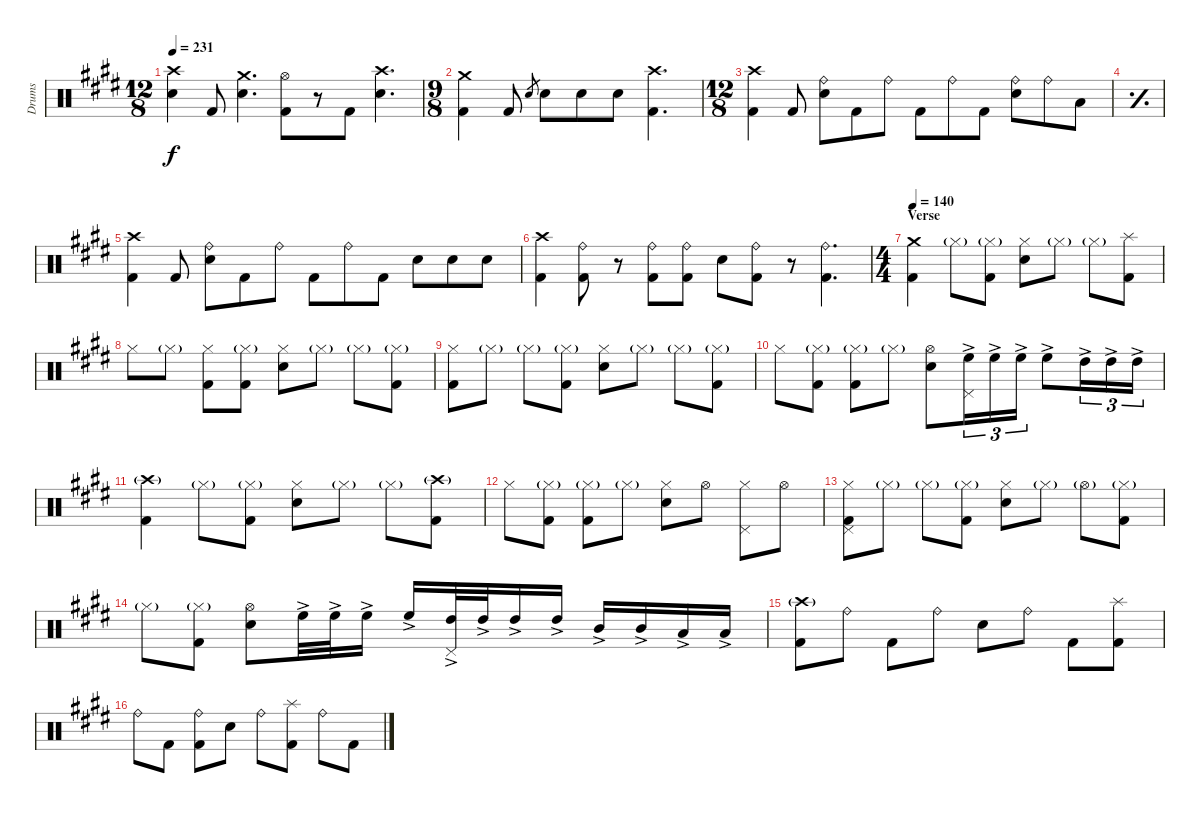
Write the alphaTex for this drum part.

\defaultSystemsLayout 4
\bracketExtendMode groupsimilarinstruments
\otherSystemsTrackNameOrientation horizontal
\track ("Drumkit" "Drums") {multiBarRest instrument percussion}
\staff {score}
\articulation defaults
\ts (12 8)
\tempo 231
\clef neutral
\ks e
("Snare (hit) 2"{acc forcenatural} "Crash high (hit)"{acc forcenatural}).4{dy f} "Kick (hit) 2"{acc forcenatural}.8 ("Snare (hit) 2"{acc forcenatural} "Crash medium (hit)"{acc forcenatural}).4{d} ("Kick (hit) 2"{acc forcenatural} "Hi-Hat (open)"{acc forcenatural}).8 r.8 "Kick (hit) 2"{acc forcenatural}.8 ("Snare (hit) 2"{acc forcenatural} "Crash high (hit)"{acc forcenatural}).4{d} |
\ts (9 8)
("Kick (hit) 2"{acc forcenatural} "Crash medium (hit)"{acc forcenatural}).4 "Kick (hit) 2"{acc forcenatural}.8 "Snare (hit) 2"{acc forcenatural}.8{gr} "Snare (hit) 2"{acc forcenatural}.8 "Snare (hit) 2"{acc forcenatural}.8 "Snare (hit) 2"{acc forcenatural}.8 ("Kick (hit) 2"{acc forcenatural} "Crash high (hit)"{acc forcenatural}).4{d} |
\ts (12 8)
("Crash high (hit)"{acc forcenatural} "Kick (hit) 2"{acc forcenatural}).4 "Kick (hit) 2"{acc forcenatural}.8 ("Ride (bell)"{acc forcenatural} "Snare (hit) 2"{acc forcenatural}).8 "Kick (hit) 2"{acc forcenatural}.8 "Ride (bell)"{acc forcenatural}.8 "Kick (hit) 2"{acc forcenatural}.8 "Ride (bell)"{acc forcenatural}.8 "Kick (hit) 2"{acc forcenatural}.8 ("Ride (bell)"{acc forcenatural} "Snare (hit) 2"{acc forcenatural}).8 "Ride (bell)"{acc forcenatural}.8 "Low Tom (hit)"{acc forcenatural}.8 |
\simile simple
|
\simile none
("Crash high (hit)"{acc forcenatural} "Kick (hit) 2"{acc forcenatural}).4 "Kick (hit) 2"{acc forcenatural}.8 ("Ride (bell)"{acc forcenatural} "Snare (hit) 2"{acc forcenatural}).8 "Kick (hit) 2"{acc forcenatural}.8 "Ride (bell)"{acc forcenatural}.8 "Kick (hit) 2"{acc forcenatural}.8 "Ride (bell)"{acc forcenatural}.8 "Kick (hit) 2"{acc forcenatural}.8 "Snare (hit) 2"{acc forcenatural}.8 "Snare (hit) 2"{acc forcenatural}.8 "Snare (hit) 2"{acc forcenatural}.8 |
("Kick (hit) 2"{acc forcenatural} "Crash high (hit)"{acc forcenatural}).4 ("Kick (hit) 2"{acc forcenatural} "Ride (bell)"{acc forcenatural}).8 r.8 ("Kick (hit) 2"{acc forcenatural} "Ride (bell)"{acc forcenatural}).8 ("Kick (hit) 2"{acc forcenatural} "Ride (bell)"{acc forcenatural}).8 "Snare (hit) 2"{acc forcenatural}.8 ("Kick (hit) 2"{acc forcenatural} "Ride (bell)"{acc forcenatural}).8 r.8 ("Kick (hit) 2"{acc forcenatural} "Ride (bell)"{acc forcenatural}).4{d} |
\ts (4 4)
\section ("" "Verse")
\tempo 140
("Kick (hit) 2"{acc forcenatural} "Crash medium (hit)"{acc forcenatural}).4 "Hi-Hat (closed)"{g acc forcenatural}.8 ("Kick (hit) 2"{acc forcenatural} "Hi-Hat (closed)"{g acc forcenatural}).8 ("Hi-Hat (closed)"{acc forcenatural} "Snare (hit) 2"{acc forcenatural}).8 "Hi-Hat (closed)"{g acc forcenatural}.8 "Hi-Hat (closed)"{g acc forcenatural}.8 ("Kick (hit) 2"{acc forcenatural} "Splash (hit)"{acc forcenatural}).8 |
"Hi-Hat (closed)"{acc forcenatural}.8 "Hi-Hat (closed)"{g acc forcenatural}.8 ("Hi-Hat (closed)"{acc forcenatural} "Kick (hit) 2"{acc forcenatural}).8 ("Hi-Hat (closed)"{g acc forcenatural} "Kick (hit) 2"{acc forcenatural}).8 ("Hi-Hat (closed)"{acc forcenatural} "Snare (hit) 2"{acc forcenatural}).8 "Hi-Hat (closed)"{g acc forcenatural}.8 "Hi-Hat (closed)"{g acc forcenatural}.8 ("Hi-Hat (closed)"{g acc forcenatural} "Kick (hit) 2"{acc forcenatural}).8 |
("Hi-Hat (closed)"{acc forcenatural} "Kick (hit) 2"{acc forcenatural}).8 "Hi-Hat (closed)"{g acc forcenatural}.8 "Hi-Hat (closed)"{g acc forcenatural}.8 ("Hi-Hat (closed)"{g acc forcenatural} "Kick (hit) 2"{acc forcenatural}).8 ("Hi-Hat (closed)"{acc forcenatural} "Snare (hit) 2"{acc forcenatural}).8 "Hi-Hat (closed)"{g acc forcenatural}.8 "Hi-Hat (closed)"{g acc forcenatural}.8 ("Hi-Hat (closed)"{g acc forcenatural} "Kick (hit) 2"{acc forcenatural}).8 |
"Hi-Hat (closed)"{acc forcenatural}.8 ("Hi-Hat (closed)"{g acc forcenatural} "Kick (hit) 2"{acc forcenatural}).8 ("Hi-Hat (closed)"{g acc forcenatural} "Kick (hit) 2"{acc forcenatural}).8 "Hi-Hat (closed)"{g acc forcenatural}.8 ("Hi-Hat (open)"{acc forcenatural} "Snare (hit) 2"{acc forcenatural}).8{beam merge} ("High Floor Tom (hit)"{ac acc forcenatural} "Pedal Hi-Hat (hit)"{acc forcenatural}).16{tu (3 2) beam merge} "High Floor Tom (hit)"{ac acc forcenatural}.16{tu (3 2) beam merge} "High Floor Tom (hit)"{ac acc forcenatural}.16{tu (3 2)} "High Floor Tom (hit)"{ac acc forcenatural}.8{beam merge} "High Tom (hit)"{ac acc forcenatural}.16{tu (3 2) beam merge} "High Tom (hit)"{ac acc forcenatural}.16{tu (3 2) beam merge} "High Tom (hit)"{ac acc forcenatural}.16{tu (3 2)} |
("Crash high (hit)"{g acc forcenatural} "Kick (hit) 2"{acc forcenatural}).4 "Hi-Hat (closed)"{g acc forcenatural}.8 ("Kick (hit) 2"{acc forcenatural} "Hi-Hat (closed)"{g acc forcenatural}).8 ("Hi-Hat (closed)"{acc forcenatural} "Snare (hit) 2"{acc forcenatural}).8 "Hi-Hat (closed)"{g acc forcenatural}.8 "Hi-Hat (closed)"{g acc forcenatural}.8 ("Crash high (hit)"{g acc forcenatural} "Kick (hit) 2"{acc forcenatural}).8 |
"Hi-Hat (closed)"{acc forcenatural}.8 ("Hi-Hat (closed)"{g acc forcenatural} "Kick (hit) 2"{acc forcenatural}).8 ("Hi-Hat (closed)"{g acc forcenatural} "Kick (hit) 2"{acc forcenatural}).8 "Hi-Hat (closed)"{g acc forcenatural}.8 ("Hi-Hat (closed)"{acc forcenatural} "Snare (hit) 2"{acc forcenatural}).8 "Hi-Hat (open)"{acc forcenatural}.8 ("Hi-Hat (closed)"{acc forcenatural} "Pedal Hi-Hat (hit)"{acc forcenatural}).8 "Hi-Hat (open)"{acc forcenatural}.8 |
("Hi-Hat (closed)"{acc forcenatural} "Kick (hit) 2"{acc forcenatural} "Pedal Hi-Hat (hit)"{acc forcenatural}).8 "Hi-Hat (closed)"{g acc forcenatural}.8 "Hi-Hat (closed)"{g acc forcenatural}.8 ("Hi-Hat (closed)"{g acc forcenatural} "Kick (hit) 2"{acc forcenatural}).8 ("Hi-Hat (closed)"{acc forcenatural} "Snare (hit) 2"{acc forcenatural}).8 "Hi-Hat (closed)"{g acc forcenatural}.8 "Hi-Hat (open)"{g acc forcenatural}.8 ("Hi-Hat (closed)"{g acc forcenatural} "Kick (hit) 2"{acc forcenatural}).8 |
"Hi-Hat (closed)"{g acc forcenatural}.8 ("Hi-Hat (closed)"{g acc forcenatural} "Kick (hit) 2"{acc forcenatural}).8 ("Snare (hit) 2"{acc forcenatural} "Hi-Hat (open)"{acc forcenatural}).8 "High Floor Tom (hit)"{ac acc forcenatural}.32 "High Floor Tom (hit)"{ac acc forcenatural}.32 "High Floor Tom (hit)"{ac acc forcenatural}.16 "High Floor Tom (hit)"{ac acc forcenatural}.16 ("High Tom (hit)"{ac acc forcenatural} "Pedal Hi-Hat (hit)"{acc forcenatural}).32 "High Tom (hit)"{ac acc forcenatural}.32 "High Tom (hit)"{ac acc forcenatural}.16 "High Tom (hit)"{ac acc forcenatural}.16 "Mid Tom (hit)"{ac acc forcenatural}.16 "Mid Tom (hit)"{ac acc forcenatural}.16 "Low Tom (hit)"{ac acc forcenatural}.16 "Low Tom (hit)"{ac acc forcenatural}.16 |
("Crash high (hit)"{g acc forcenatural} "Kick (hit) 2"{acc forcenatural}).8 "Ride (bell)"{acc forcenatural}.8 "Kick (hit) 2"{acc forcenatural}.8 "Ride (bell)"{acc forcenatural}.8 "Snare (hit) 2"{acc forcenatural}.8 "Ride (bell)"{acc forcenatural}.8 "Kick (hit) 2"{acc forcenatural}.8 ("Kick (hit) 2"{acc forcenatural} "Splash (hit)"{acc forcenatural}).8 |
"Ride (bell)"{acc forcenatural}.8 "Kick (hit) 2"{acc forcenatural}.8 ("Kick (hit) 2"{acc forcenatural} "Ride (bell)"{acc forcenatural}).8 "Snare (hit) 2"{acc forcenatural}.8 "Ride (bell)"{acc forcenatural}.8 ("Kick (hit) 2"{acc forcenatural} "Splash (hit)"{acc forcenatural}).8 "Ride (bell)"{acc forcenatural}.8 "Kick (hit) 2"{acc forcenatural}.8
